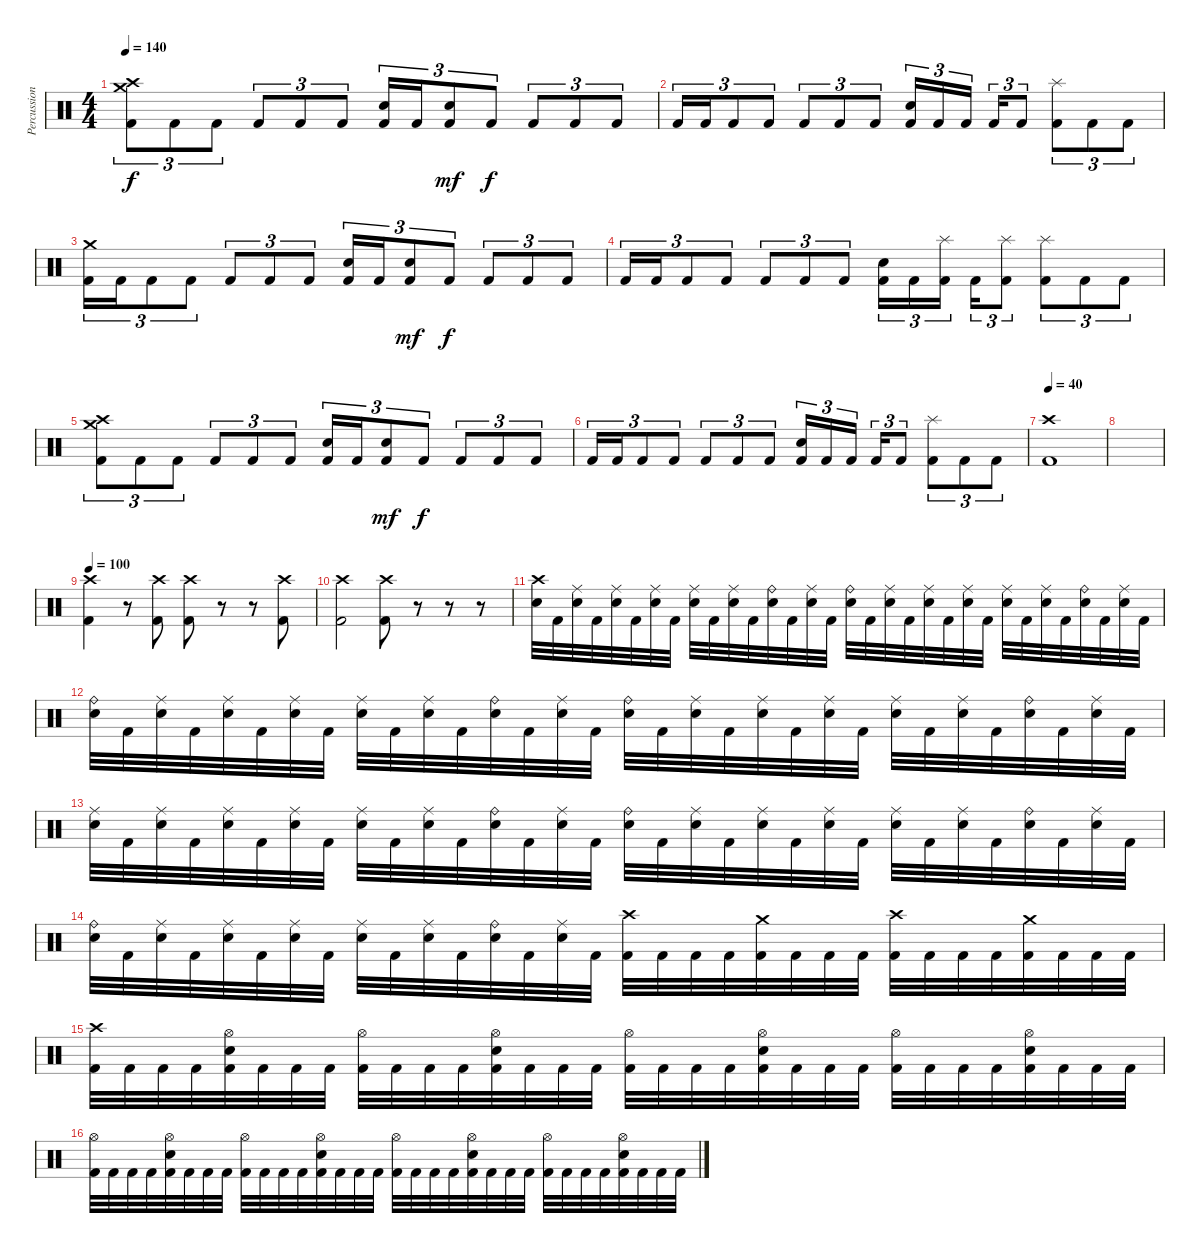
\track ("Percussion" "Percussion") {instrument percussion}
\staff {score}
\articulation defaults
\ts (4 4)
\tempo 140
\clef neutral
\ks c
("Crash high (hit)" "Crash medium (hit)" "Kick (hit) 2").8{tu (3 2) dy f} "Kick (hit) 2".8{tu (3 2)} "Kick (hit) 2".8{tu (3 2)} "Kick (hit) 2".8{tu (3 2)} "Kick (hit) 2".8{tu (3 2)} "Kick (hit) 2".8{tu (3 2)} ("Snare (hit) 2" "Kick (hit) 2").16{tu (3 2)} "Kick (hit) 2".16{tu (3 2)} ("Snare (hit) 2" "Kick (hit) 2").8{tu (3 2) dy mf} "Kick (hit) 2".8{tu (3 2) dy f} "Kick (hit) 2".8{tu (3 2)} "Kick (hit) 2".8{tu (3 2)} "Kick (hit) 2".8{tu (3 2)} |
"Kick (hit) 2".16{tu (3 2)} "Kick (hit) 2".16{tu (3 2)} "Kick (hit) 2".8{tu (3 2)} "Kick (hit) 2".8{tu (3 2)} "Kick (hit) 2".8{tu (3 2)} "Kick (hit) 2".8{tu (3 2)} "Kick (hit) 2".8{tu (3 2)} ("Snare (hit) 2" "Kick (hit) 2").16{tu (3 2)} "Kick (hit) 2".16{tu (3 2)} "Kick (hit) 2".16{tu (3 2) beam splitsecondary} "Kick (hit) 2".16{tu (3 2)} "Kick (hit) 2".8{tu (3 2)} ("Splash (hit)" "Kick (hit) 2").8{tu (3 2)} "Kick (hit) 2".8{tu (3 2)} "Kick (hit) 2".8{tu (3 2)} |
("Crash medium (hit)" "Kick (hit) 2").16{tu (3 2)} "Kick (hit) 2".16{tu (3 2)} "Kick (hit) 2".8{tu (3 2)} "Kick (hit) 2".8{tu (3 2)} "Kick (hit) 2".8{tu (3 2)} "Kick (hit) 2".8{tu (3 2)} "Kick (hit) 2".8{tu (3 2)} ("Snare (hit) 2" "Kick (hit) 2").16{tu (3 2)} "Kick (hit) 2".16{tu (3 2)} ("Snare (hit) 2" "Kick (hit) 2").8{tu (3 2) dy mf} "Kick (hit) 2".8{tu (3 2) dy f} "Kick (hit) 2".8{tu (3 2)} "Kick (hit) 2".8{tu (3 2)} "Kick (hit) 2".8{tu (3 2)} |
"Kick (hit) 2".16{tu (3 2)} "Kick (hit) 2".16{tu (3 2)} "Kick (hit) 2".8{tu (3 2)} "Kick (hit) 2".8{tu (3 2)} "Kick (hit) 2".8{tu (3 2)} "Kick (hit) 2".8{tu (3 2)} "Kick (hit) 2".8{tu (3 2)} ("Snare (hit) 2" "Kick (hit) 2").16{tu (3 2)} "Kick (hit) 2".16{tu (3 2)} ("Splash (hit)" "Kick (hit) 2").16{tu (3 2) beam splitsecondary} "Kick (hit) 2".16{tu (3 2)} ("Splash (hit)" "Kick (hit) 2").8{tu (3 2)} ("Splash (hit)" "Kick (hit) 2").8{tu (3 2)} "Kick (hit) 2".8{tu (3 2)} "Kick (hit) 2".8{tu (3 2)} |
("Crash high (hit)" "Crash medium (hit)" "Kick (hit) 2").8{tu (3 2)} "Kick (hit) 2".8{tu (3 2)} "Kick (hit) 2".8{tu (3 2)} "Kick (hit) 2".8{tu (3 2)} "Kick (hit) 2".8{tu (3 2)} "Kick (hit) 2".8{tu (3 2)} ("Snare (hit) 2" "Kick (hit) 2").16{tu (3 2)} "Kick (hit) 2".16{tu (3 2)} ("Snare (hit) 2" "Kick (hit) 2").8{tu (3 2) dy mf} "Kick (hit) 2".8{tu (3 2) dy f} "Kick (hit) 2".8{tu (3 2)} "Kick (hit) 2".8{tu (3 2)} "Kick (hit) 2".8{tu (3 2)} |
"Kick (hit) 2".16{tu (3 2)} "Kick (hit) 2".16{tu (3 2)} "Kick (hit) 2".8{tu (3 2)} "Kick (hit) 2".8{tu (3 2)} "Kick (hit) 2".8{tu (3 2)} "Kick (hit) 2".8{tu (3 2)} "Kick (hit) 2".8{tu (3 2)} ("Snare (hit) 2" "Kick (hit) 2").16{tu (3 2)} "Kick (hit) 2".16{tu (3 2)} "Kick (hit) 2".16{tu (3 2) beam splitsecondary} "Kick (hit) 2".16{tu (3 2)} "Kick (hit) 2".8{tu (3 2)} ("Splash (hit)" "Kick (hit) 2").8{tu (3 2)} "Kick (hit) 2".8{tu (3 2)} "Kick (hit) 2".8{tu (3 2)} |
\tempo 40
("Crash high (hit)" "Kick (hit) 2").1 |
|
\tempo 100
("Crash high (hit)" "Kick (hit) 2").4 r.8 ("Crash high (hit)" "Kick (hit) 2").8 ("Crash high (hit)" "Kick (hit) 2").8 r.8 r.8 ("Crash high (hit)" "Kick (hit) 2").8 |
("Crash high (hit)" "Kick (hit) 2").2 ("Crash high (hit)" "Kick (hit) 2").8 r.8 r.8 r.8 |
("Crash high (hit)" "Snare (hit) 2").32 "Kick (hit) 2".32 ("Ride (middle)" "Snare (hit) 2").32 "Kick (hit) 2".32 ("Ride (middle)" "Snare (hit) 2").32 "Kick (hit) 2".32 ("Ride (middle)" "Snare (hit) 2").32 "Kick (hit) 2".32 ("Ride (middle)" "Snare (hit) 2").32 "Kick (hit) 2".32 ("Ride (middle)" "Snare (hit) 2").32 "Kick (hit) 2".32 ("Ride (bell)" "Snare (hit) 2").32 "Kick (hit) 2".32 ("Ride (middle)" "Snare (hit) 2").32 "Kick (hit) 2".32 ("Ride (bell)" "Snare (hit) 2").32 "Kick (hit) 2".32 ("Ride (middle)" "Snare (hit) 2").32 "Kick (hit) 2".32 ("Ride (middle)" "Snare (hit) 2").32 "Kick (hit) 2".32 ("Ride (middle)" "Snare (hit) 2").32 "Kick (hit) 2".32 ("Ride (middle)" "Snare (hit) 2").32 "Kick (hit) 2".32 ("Ride (middle)" "Snare (hit) 2").32 "Kick (hit) 2".32 ("Ride (bell)" "Snare (hit) 2").32 "Kick (hit) 2".32 ("Ride (middle)" "Snare (hit) 2").32 "Kick (hit) 2".32 |
("Ride (bell)" "Snare (hit) 2").32 "Kick (hit) 2".32 ("Ride (middle)" "Snare (hit) 2").32 "Kick (hit) 2".32 ("Ride (middle)" "Snare (hit) 2").32 "Kick (hit) 2".32 ("Ride (middle)" "Snare (hit) 2").32 "Kick (hit) 2".32 ("Ride (middle)" "Snare (hit) 2").32 "Kick (hit) 2".32 ("Ride (middle)" "Snare (hit) 2").32 "Kick (hit) 2".32 ("Ride (bell)" "Snare (hit) 2").32 "Kick (hit) 2".32 ("Ride (middle)" "Snare (hit) 2").32 "Kick (hit) 2".32 ("Ride (bell)" "Snare (hit) 2").32 "Kick (hit) 2".32 ("Ride (middle)" "Snare (hit) 2").32 "Kick (hit) 2".32 ("Ride (middle)" "Snare (hit) 2").32 "Kick (hit) 2".32 ("Ride (middle)" "Snare (hit) 2").32 "Kick (hit) 2".32 ("Ride (middle)" "Snare (hit) 2").32 "Kick (hit) 2".32 ("Ride (middle)" "Snare (hit) 2").32 "Kick (hit) 2".32 ("Ride (bell)" "Snare (hit) 2").32 "Kick (hit) 2".32 ("Ride (middle)" "Snare (hit) 2").32 "Kick (hit) 2".32 |
("Ride (middle)" "Snare (hit) 2").32 "Kick (hit) 2".32 ("Ride (middle)" "Snare (hit) 2").32 "Kick (hit) 2".32 ("Ride (middle)" "Snare (hit) 2").32 "Kick (hit) 2".32 ("Ride (middle)" "Snare (hit) 2").32 "Kick (hit) 2".32 ("Ride (middle)" "Snare (hit) 2").32 "Kick (hit) 2".32 ("Ride (middle)" "Snare (hit) 2").32 "Kick (hit) 2".32 ("Ride (bell)" "Snare (hit) 2").32 "Kick (hit) 2".32 ("Ride (middle)" "Snare (hit) 2").32 "Kick (hit) 2".32 ("Ride (bell)" "Snare (hit) 2").32 "Kick (hit) 2".32 ("Ride (middle)" "Snare (hit) 2").32 "Kick (hit) 2".32 ("Ride (middle)" "Snare (hit) 2").32 "Kick (hit) 2".32 ("Ride (middle)" "Snare (hit) 2").32 "Kick (hit) 2".32 ("Ride (middle)" "Snare (hit) 2").32 "Kick (hit) 2".32 ("Ride (middle)" "Snare (hit) 2").32 "Kick (hit) 2".32 ("Ride (bell)" "Snare (hit) 2").32 "Kick (hit) 2".32 ("Ride (middle)" "Snare (hit) 2").32 "Kick (hit) 2".32 |
("Ride (bell)" "Snare (hit) 2").32 "Kick (hit) 2".32 ("Ride (middle)" "Snare (hit) 2").32 "Kick (hit) 2".32 ("Ride (middle)" "Snare (hit) 2").32 "Kick (hit) 2".32 ("Ride (middle)" "Snare (hit) 2").32 "Kick (hit) 2".32 ("Ride (middle)" "Snare (hit) 2").32 "Kick (hit) 2".32 ("Ride (middle)" "Snare (hit) 2").32 "Kick (hit) 2".32 ("Ride (bell)" "Snare (hit) 2").32 "Kick (hit) 2".32 ("Ride (middle)" "Snare (hit) 2").32 "Kick (hit) 2".32 ("Crash high (hit)" "Kick (hit) 2").32 "Kick (hit) 2".32 "Kick (hit) 2".32 "Kick (hit) 2".32 ("Crash medium (hit)" "Kick (hit) 2").32 "Kick (hit) 2".32 "Kick (hit) 2".32 "Kick (hit) 2".32 ("Crash high (hit)" "Kick (hit) 2").32 "Kick (hit) 2".32 "Kick (hit) 2".32 "Kick (hit) 2".32 ("Crash medium (hit)" "Kick (hit) 2").32 "Kick (hit) 2".32 "Kick (hit) 2".32 "Kick (hit) 2".32 |
("Crash high (hit)" "Kick (hit) 2").32 "Kick (hit) 2".32 "Kick (hit) 2".32 "Kick (hit) 2".32 ("Hi-Hat (open)" "Snare (hit) 2" "Kick (hit) 2").32 "Kick (hit) 2".32 "Kick (hit) 2".32 "Kick (hit) 2".32 ("Hi-Hat (open)" "Kick (hit) 2").32 "Kick (hit) 2".32 "Kick (hit) 2".32 "Kick (hit) 2".32 ("Hi-Hat (open)" "Snare (hit) 2" "Kick (hit) 2").32 "Kick (hit) 2".32 "Kick (hit) 2".32 "Kick (hit) 2".32 ("Hi-Hat (open)" "Kick (hit) 2").32 "Kick (hit) 2".32 "Kick (hit) 2".32 "Kick (hit) 2".32 ("Hi-Hat (open)" "Snare (hit) 2" "Kick (hit) 2").32 "Kick (hit) 2".32 "Kick (hit) 2".32 "Kick (hit) 2".32 ("Hi-Hat (open)" "Kick (hit) 2").32 "Kick (hit) 2".32 "Kick (hit) 2".32 "Kick (hit) 2".32 ("Hi-Hat (open)" "Snare (hit) 2" "Kick (hit) 2").32 "Kick (hit) 2".32 "Kick (hit) 2".32 "Kick (hit) 2".32 |
("Hi-Hat (open)" "Kick (hit) 2").32 "Kick (hit) 2".32 "Kick (hit) 2".32 "Kick (hit) 2".32 ("Hi-Hat (open)" "Snare (hit) 2" "Kick (hit) 2").32 "Kick (hit) 2".32 "Kick (hit) 2".32 "Kick (hit) 2".32 ("Hi-Hat (open)" "Kick (hit) 2").32 "Kick (hit) 2".32 "Kick (hit) 2".32 "Kick (hit) 2".32 ("Hi-Hat (open)" "Snare (hit) 2" "Kick (hit) 2").32 "Kick (hit) 2".32 "Kick (hit) 2".32 "Kick (hit) 2".32 ("Hi-Hat (open)" "Kick (hit) 2").32 "Kick (hit) 2".32 "Kick (hit) 2".32 "Kick (hit) 2".32 ("Hi-Hat (open)" "Snare (hit) 2" "Kick (hit) 2").32 "Kick (hit) 2".32 "Kick (hit) 2".32 "Kick (hit) 2".32 ("Hi-Hat (open)" "Kick (hit) 2").32 "Kick (hit) 2".32 "Kick (hit) 2".32 "Kick (hit) 2".32 ("Hi-Hat (open)" "Snare (hit) 2" "Kick (hit) 2").32 "Kick (hit) 2".32 "Kick (hit) 2".32 "Kick (hit) 2".32
